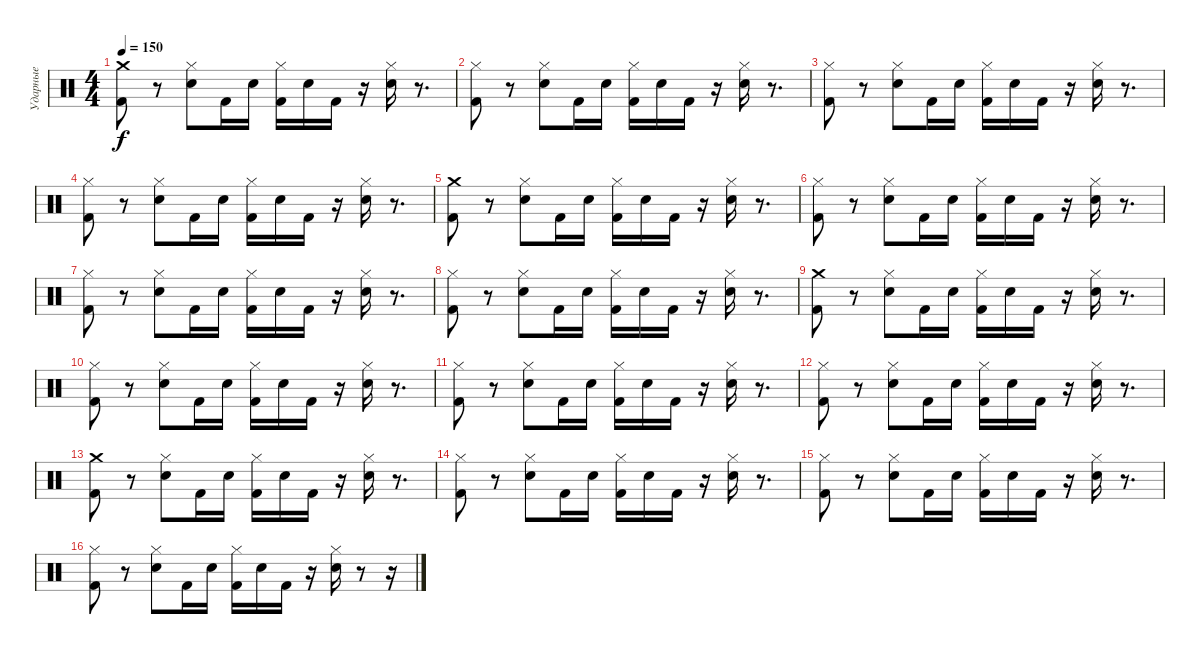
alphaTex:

\track ("Ударные" "Ударные") {instrument percussion}
\staff {score}
\articulation defaults
\ts (4 4)
\tempo 150
\clef neutral
\ks c
("Crash medium (hit)" "Kick (hit) 2").8{dy f} r.8 ("Hi-Hat (closed)" "Electric Snare (hit)").8 "Kick (hit) 2".16 "Electric Snare (hit)".16 ("Hi-Hat (closed)" "Kick (hit) 2").16 "Electric Snare (hit)".16 "Kick (hit) 2".16 r.16 ("Hi-Hat (closed)" "Electric Snare (hit)").16 r.8{d} |
("Hi-Hat (closed)" "Kick (hit) 2").8 r.8 ("Hi-Hat (closed)" "Electric Snare (hit)").8 "Kick (hit) 2".16 "Electric Snare (hit)".16 ("Hi-Hat (closed)" "Kick (hit) 2").16 "Electric Snare (hit)".16 "Kick (hit) 2".16 r.16 ("Hi-Hat (closed)" "Electric Snare (hit)").16 r.8{d} |
("Hi-Hat (closed)" "Kick (hit) 2").8 r.8 ("Hi-Hat (closed)" "Electric Snare (hit)").8 "Kick (hit) 2".16 "Electric Snare (hit)".16 ("Hi-Hat (closed)" "Kick (hit) 2").16 "Electric Snare (hit)".16 "Kick (hit) 2".16 r.16 ("Hi-Hat (closed)" "Electric Snare (hit)").16 r.8{d} |
("Hi-Hat (closed)" "Kick (hit) 2").8 r.8 ("Hi-Hat (closed)" "Electric Snare (hit)").8 "Kick (hit) 2".16 "Electric Snare (hit)".16 ("Hi-Hat (closed)" "Kick (hit) 2").16 "Electric Snare (hit)".16 "Kick (hit) 2".16 r.16 ("Hi-Hat (closed)" "Electric Snare (hit)").16 r.8{d} |
("Crash medium (hit)" "Kick (hit) 2").8 r.8 ("Hi-Hat (closed)" "Electric Snare (hit)").8 "Kick (hit) 2".16 "Electric Snare (hit)".16 ("Hi-Hat (closed)" "Kick (hit) 2").16 "Electric Snare (hit)".16 "Kick (hit) 2".16 r.16 ("Hi-Hat (closed)" "Electric Snare (hit)").16 r.8{d} |
("Hi-Hat (closed)" "Kick (hit) 2").8 r.8 ("Hi-Hat (closed)" "Electric Snare (hit)").8 "Kick (hit) 2".16 "Electric Snare (hit)".16 ("Hi-Hat (closed)" "Kick (hit) 2").16 "Electric Snare (hit)".16 "Kick (hit) 2".16 r.16 ("Hi-Hat (closed)" "Electric Snare (hit)").16 r.8{d} |
("Hi-Hat (closed)" "Kick (hit) 2").8 r.8 ("Hi-Hat (closed)" "Electric Snare (hit)").8 "Kick (hit) 2".16 "Electric Snare (hit)".16 ("Hi-Hat (closed)" "Kick (hit) 2").16 "Electric Snare (hit)".16 "Kick (hit) 2".16 r.16 ("Hi-Hat (closed)" "Electric Snare (hit)").16 r.8{d} |
("Hi-Hat (closed)" "Kick (hit) 2").8 r.8 ("Hi-Hat (closed)" "Electric Snare (hit)").8 "Kick (hit) 2".16 "Electric Snare (hit)".16 ("Hi-Hat (closed)" "Kick (hit) 2").16 "Electric Snare (hit)".16 "Kick (hit) 2".16 r.16 ("Hi-Hat (closed)" "Electric Snare (hit)").16 r.8{d} |
("Crash medium (hit)" "Kick (hit) 2").8 r.8 ("Hi-Hat (closed)" "Electric Snare (hit)").8 "Kick (hit) 2".16 "Electric Snare (hit)".16 ("Hi-Hat (closed)" "Kick (hit) 2").16 "Electric Snare (hit)".16 "Kick (hit) 2".16 r.16 ("Hi-Hat (closed)" "Electric Snare (hit)").16 r.8{d} |
("Hi-Hat (closed)" "Kick (hit) 2").8 r.8 ("Hi-Hat (closed)" "Electric Snare (hit)").8 "Kick (hit) 2".16 "Electric Snare (hit)".16 ("Hi-Hat (closed)" "Kick (hit) 2").16 "Electric Snare (hit)".16 "Kick (hit) 2".16 r.16 ("Hi-Hat (closed)" "Electric Snare (hit)").16 r.8{d} |
("Hi-Hat (closed)" "Kick (hit) 2").8 r.8 ("Hi-Hat (closed)" "Electric Snare (hit)").8 "Kick (hit) 2".16 "Electric Snare (hit)".16 ("Hi-Hat (closed)" "Kick (hit) 2").16 "Electric Snare (hit)".16 "Kick (hit) 2".16 r.16 ("Hi-Hat (closed)" "Electric Snare (hit)").16 r.8{d} |
("Hi-Hat (closed)" "Kick (hit) 2").8 r.8 ("Hi-Hat (closed)" "Electric Snare (hit)").8 "Kick (hit) 2".16 "Electric Snare (hit)".16 ("Hi-Hat (closed)" "Kick (hit) 2").16 "Electric Snare (hit)".16 "Kick (hit) 2".16 r.16 ("Hi-Hat (closed)" "Electric Snare (hit)").16 r.8{d} |
("Crash medium (hit)" "Kick (hit) 2").8 r.8 ("Hi-Hat (closed)" "Electric Snare (hit)").8 "Kick (hit) 2".16 "Electric Snare (hit)".16 ("Hi-Hat (closed)" "Kick (hit) 2").16 "Electric Snare (hit)".16 "Kick (hit) 2".16 r.16 ("Hi-Hat (closed)" "Electric Snare (hit)").16 r.8{d} |
("Hi-Hat (closed)" "Kick (hit) 2").8 r.8 ("Hi-Hat (closed)" "Electric Snare (hit)").8 "Kick (hit) 2".16 "Electric Snare (hit)".16 ("Hi-Hat (closed)" "Kick (hit) 2").16 "Electric Snare (hit)".16 "Kick (hit) 2".16 r.16 ("Hi-Hat (closed)" "Electric Snare (hit)").16 r.8{d} |
("Hi-Hat (closed)" "Kick (hit) 2").8 r.8 ("Hi-Hat (closed)" "Electric Snare (hit)").8 "Kick (hit) 2".16 "Electric Snare (hit)".16 ("Hi-Hat (closed)" "Kick (hit) 2").16 "Electric Snare (hit)".16 "Kick (hit) 2".16 r.16 ("Hi-Hat (closed)" "Electric Snare (hit)").16 r.8{d} |
("Hi-Hat (closed)" "Kick (hit) 2").8 r.8 ("Hi-Hat (closed)" "Electric Snare (hit)").8 "Kick (hit) 2".16 "Electric Snare (hit)".16 ("Hi-Hat (closed)" "Kick (hit) 2").16 "Electric Snare (hit)".16 "Kick (hit) 2".16 r.16 ("Hi-Hat (closed)" "Electric Snare (hit)").16 r.8 r.16
